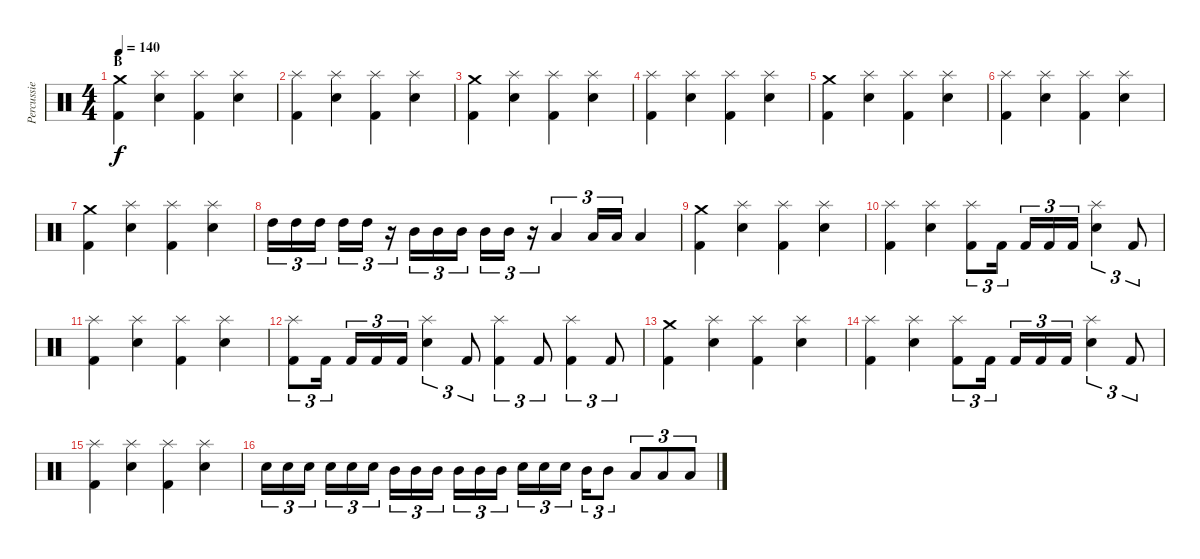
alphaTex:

\track ("Percussie" "Percussie") {instrument percussion}
\staff {score}
\articulation defaults
\ts (4 4)
\section ("" "B")
\tempo 140
\clef neutral
\ks c
("Crash medium (hit)" "Kick (hit) 2").4{dy f volume 16} ("Splash (hit)" "Electric Snare (hit)").4 ("Splash (hit)" "Kick (hit) 2").4 ("Splash (hit)" "Electric Snare (hit)").4 |
("Splash (hit)" "Kick (hit) 2").4 ("Splash (hit)" "Electric Snare (hit)").4 ("Splash (hit)" "Kick (hit) 2").4 ("Splash (hit)" "Electric Snare (hit)").4 |
("Crash medium (hit)" "Kick (hit) 2").4 ("Splash (hit)" "Electric Snare (hit)").4 ("Splash (hit)" "Kick (hit) 2").4 ("Splash (hit)" "Electric Snare (hit)").4 |
("Splash (hit)" "Kick (hit) 2").4 ("Splash (hit)" "Electric Snare (hit)").4 ("Splash (hit)" "Kick (hit) 2").4 ("Splash (hit)" "Electric Snare (hit)").4 |
("Crash medium (hit)" "Kick (hit) 2").4 ("Splash (hit)" "Electric Snare (hit)").4 ("Splash (hit)" "Kick (hit) 2").4 ("Splash (hit)" "Electric Snare (hit)").4 |
("Splash (hit)" "Kick (hit) 2").4 ("Splash (hit)" "Electric Snare (hit)").4 ("Splash (hit)" "Kick (hit) 2").4 ("Splash (hit)" "Electric Snare (hit)").4 |
("Crash medium (hit)" "Kick (hit) 2").4 ("Splash (hit)" "Electric Snare (hit)").4 ("Splash (hit)" "Kick (hit) 2").4 ("Splash (hit)" "Electric Snare (hit)").4 |
"High Tom (hit)".16{tu (3 2)} "High Tom (hit)".16{tu (3 2)} "High Tom (hit)".16{tu (3 2)} "High Tom (hit)".16{tu (3 2)} "High Tom (hit)".16{tu (3 2)} r.16{tu (3 2)} "Mid Tom (hit)".16{tu (3 2)} "Mid Tom (hit)".16{tu (3 2)} "Mid Tom (hit)".16{tu (3 2)} "Mid Tom (hit)".16{tu (3 2)} "Mid Tom (hit)".16{tu (3 2)} r.16{tu (3 2)} "Low Tom (hit)".4{tu (3 2)} "Low Tom (hit)".16{tu (3 2)} "Low Tom (hit)".16{tu (3 2)} "Low Tom (hit)".4 |
("Crash medium (hit)" "Kick (hit) 2").4 ("Splash (hit)" "Electric Snare (hit)").4 ("Splash (hit)" "Kick (hit) 2").4 ("Splash (hit)" "Electric Snare (hit)").4 |
("Splash (hit)" "Kick (hit) 2").4 ("Splash (hit)" "Electric Snare (hit)").4 ("Splash (hit)" "Kick (hit) 2").8{tu (3 2)} "Kick (hit) 2".16{tu (3 2)} "Kick (hit) 2".16{tu (3 2)} "Kick (hit) 2".16{tu (3 2)} "Kick (hit) 2".16{tu (3 2)} ("Splash (hit)" "Electric Snare (hit)").4{tu (3 2)} "Kick (hit) 2".8{tu (3 2)} |
("Splash (hit)" "Kick (hit) 2").4 ("Splash (hit)" "Electric Snare (hit)").4 ("Splash (hit)" "Kick (hit) 2").4 ("Splash (hit)" "Electric Snare (hit)").4 |
("Splash (hit)" "Kick (hit) 2").8{tu (3 2)} "Kick (hit) 2".16{tu (3 2)} "Kick (hit) 2".16{tu (3 2)} "Kick (hit) 2".16{tu (3 2)} "Kick (hit) 2".16{tu (3 2)} ("Splash (hit)" "Electric Snare (hit)").4{tu (3 2)} "Kick (hit) 2".8{tu (3 2)} ("Splash (hit)" "Kick (hit) 2").4{tu (3 2)} "Kick (hit) 2".8{tu (3 2)} ("Splash (hit)" "Kick (hit) 2").4{tu (3 2)} "Kick (hit) 2".8{tu (3 2)} |
("Crash medium (hit)" "Kick (hit) 2").4 ("Splash (hit)" "Electric Snare (hit)").4 ("Splash (hit)" "Kick (hit) 2").4 ("Splash (hit)" "Electric Snare (hit)").4 |
("Splash (hit)" "Kick (hit) 2").4 ("Splash (hit)" "Electric Snare (hit)").4 ("Splash (hit)" "Kick (hit) 2").8{tu (3 2)} "Kick (hit) 2".16{tu (3 2)} "Kick (hit) 2".16{tu (3 2)} "Kick (hit) 2".16{tu (3 2)} "Kick (hit) 2".16{tu (3 2)} ("Splash (hit)" "Electric Snare (hit)").4{tu (3 2)} "Kick (hit) 2".8{tu (3 2)} |
("Splash (hit)" "Kick (hit) 2").4 ("Splash (hit)" "Electric Snare (hit)").4 ("Splash (hit)" "Kick (hit) 2").4 ("Splash (hit)" "Electric Snare (hit)").4 |
"Electric Snare (hit)".16{tu (3 2)} "Electric Snare (hit)".16{tu (3 2)} "Electric Snare (hit)".16{tu (3 2)} "Electric Snare (hit)".16{tu (3 2)} "Electric Snare (hit)".16{tu (3 2)} "Electric Snare (hit)".16{tu (3 2)} "Mid Tom (hit)".16{tu (3 2)} "Mid Tom (hit)".16{tu (3 2)} "Mid Tom (hit)".16{tu (3 2)} "Mid Tom (hit)".16{tu (3 2)} "Mid Tom (hit)".16{tu (3 2)} "Mid Tom (hit)".16{tu (3 2)} "Electric Snare (hit)".16{tu (3 2)} "Electric Snare (hit)".16{tu (3 2)} "Electric Snare (hit)".16{tu (3 2)} "Mid Tom (hit)".16{tu (3 2)} "Mid Tom (hit)".8{tu (3 2)} "Low Tom (hit)".8{tu (3 2)} "Low Tom (hit)".8{tu (3 2)} "Low Tom (hit)".8{tu (3 2)}
